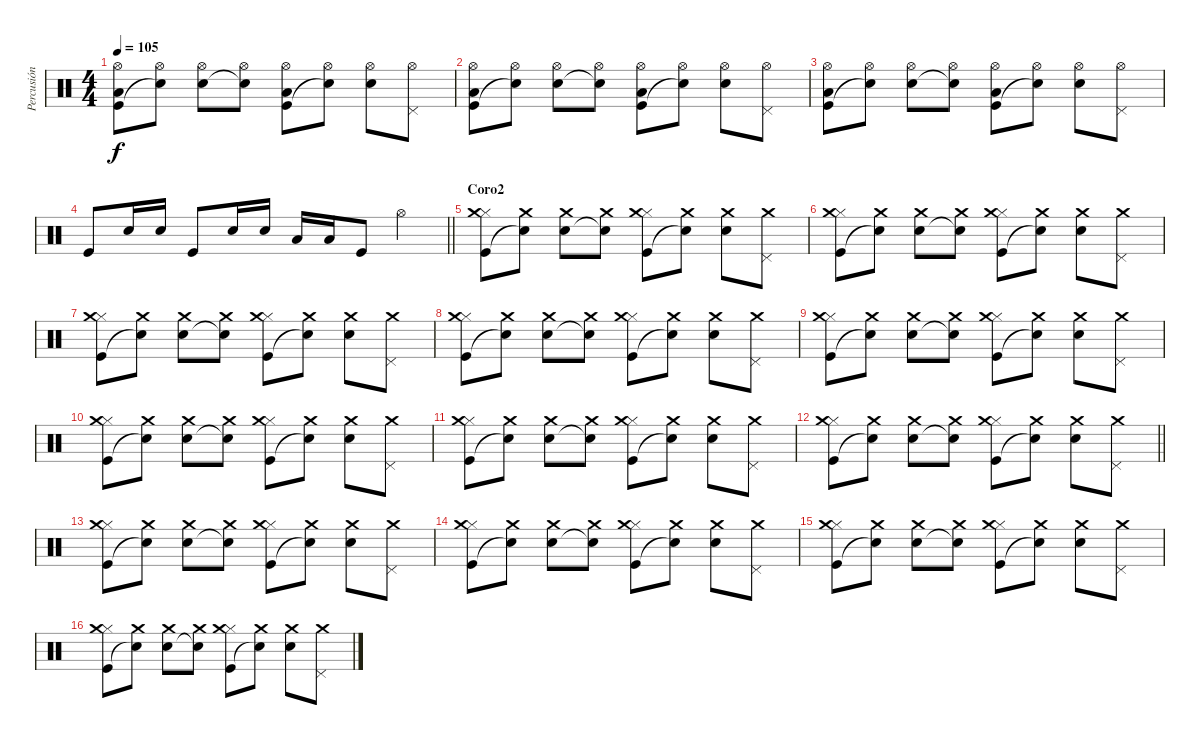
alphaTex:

\track ("Percusión" "Percusión") {instrument percussion}
\staff {score}
\articulation defaults
\ts (4 4)
\tempo 105
\clef neutral
\ks c
("Kick (hit)" "Low Floor Tom (hit)" "Hi-Hat (open)").8{dy f} ("Snare (hit)"{t} "Hi-Hat (open)").8 ("Snare (hit) 2" "Hi-Hat (open)").8 ("Snare (hit)"{t} "Hi-Hat (open)").8 ("Kick (hit)" "Low Floor Tom (hit)" "Hi-Hat (open)").8 ("Snare (hit)"{t} "Hi-Hat (open)").8 ("Electric Snare (hit)" "Hi-Hat (open)").8 ("Pedal Hi-Hat (hit)" "Hi-Hat (open)").8 |
("Kick (hit)" "Low Floor Tom (hit)" "Hi-Hat (open)").8 ("Snare (hit)"{t} "Hi-Hat (open)").8 ("Snare (hit) 2" "Hi-Hat (open)").8 ("Snare (hit)"{t} "Hi-Hat (open)").8 ("Kick (hit)" "Low Floor Tom (hit)" "Hi-Hat (open)").8 ("Snare (hit)"{t} "Hi-Hat (open)").8 ("Electric Snare (hit)" "Hi-Hat (open)").8 ("Pedal Hi-Hat (hit)" "Hi-Hat (open)").8 |
("Kick (hit)" "Low Floor Tom (hit)" "Hi-Hat (open)").8 ("Snare (hit)"{t} "Hi-Hat (open)").8 ("Snare (hit) 2" "Hi-Hat (open)").8 ("Snare (hit)"{t} "Hi-Hat (open)").8 ("Kick (hit)" "Low Floor Tom (hit)" "Hi-Hat (open)").8 ("Snare (hit)"{t} "Hi-Hat (open)").8 ("Electric Snare (hit)" "Hi-Hat (open)").8 ("Pedal Hi-Hat (hit)" "Hi-Hat (open)").8 |
\barLineRight lightlight "Kick (hit)".8 "Electric Snare (hit)".16 "Electric Snare (hit)".16 "Kick (hit)".8 "Electric Snare (hit)".16 "Electric Snare (hit)".16 "Low Tom (hit)".16 "Low Floor Tom (hit)".16 "Kick (hit)".8 "Hi-Hat (open)".4
|
\section ("" "Coro2")
("Kick (hit)" "Hi-Hat (closed)" "Crash medium (hit)").8 ("Snare (hit)"{t} "Crash medium (hit)").8 ("Electric Snare (hit)" "Crash medium (hit)").8 ("Snare (hit)"{t} "Crash medium (hit)").8 ("Kick (hit)" "Hi-Hat (closed)" "Crash medium (hit)").8 ("Snare (hit)"{t} "Crash medium (hit)").8 ("Electric Snare (hit)" "Crash medium (hit)").8 ("Pedal Hi-Hat (hit)" "Crash medium (hit)").8 |
("Kick (hit)" "Hi-Hat (closed)" "Crash medium (hit)").8 ("Snare (hit)"{t} "Crash medium (hit)").8 ("Electric Snare (hit)" "Crash medium (hit)").8 ("Snare (hit)"{t} "Crash medium (hit)").8 ("Kick (hit)" "Hi-Hat (closed)" "Crash medium (hit)").8 ("Snare (hit)"{t} "Crash medium (hit)").8 ("Electric Snare (hit)" "Crash medium (hit)").8 ("Pedal Hi-Hat (hit)" "Crash medium (hit)").8 |
("Kick (hit)" "Hi-Hat (closed)" "Crash medium (hit)").8 ("Snare (hit)"{t} "Crash medium (hit)").8 ("Electric Snare (hit)" "Crash medium (hit)").8 ("Snare (hit)"{t} "Crash medium (hit)").8 ("Kick (hit)" "Hi-Hat (closed)" "Crash medium (hit)").8 ("Snare (hit)"{t} "Crash medium (hit)").8 ("Electric Snare (hit)" "Crash medium (hit)").8 ("Pedal Hi-Hat (hit)" "Crash medium (hit)").8 |
("Kick (hit)" "Hi-Hat (closed)" "Crash medium (hit)").8 ("Snare (hit)"{t} "Crash medium (hit)").8 ("Electric Snare (hit)" "Crash medium (hit)").8 ("Snare (hit)"{t} "Crash medium (hit)").8 ("Kick (hit)" "Hi-Hat (closed)" "Crash medium (hit)").8 ("Snare (hit)"{t} "Crash medium (hit)").8 ("Electric Snare (hit)" "Crash medium (hit)").8 ("Pedal Hi-Hat (hit)" "Crash medium (hit)").8 |
("Kick (hit)" "Hi-Hat (closed)" "Crash medium (hit)").8 ("Snare (hit)"{t} "Crash medium (hit)").8 ("Electric Snare (hit)" "Crash medium (hit)").8 ("Snare (hit)"{t} "Crash medium (hit)").8 ("Kick (hit)" "Hi-Hat (closed)" "Crash medium (hit)").8 ("Snare (hit)"{t} "Crash medium (hit)").8 ("Electric Snare (hit)" "Crash medium (hit)").8 ("Pedal Hi-Hat (hit)" "Crash medium (hit)").8 |
("Kick (hit)" "Hi-Hat (closed)" "Crash medium (hit)").8 ("Snare (hit)"{t} "Crash medium (hit)").8 ("Electric Snare (hit)" "Crash medium (hit)").8 ("Snare (hit)"{t} "Crash medium (hit)").8 ("Kick (hit)" "Hi-Hat (closed)" "Crash medium (hit)").8 ("Snare (hit)"{t} "Crash medium (hit)").8 ("Electric Snare (hit)" "Crash medium (hit)").8 ("Pedal Hi-Hat (hit)" "Crash medium (hit)").8 |
("Kick (hit)" "Hi-Hat (closed)" "Crash medium (hit)").8 ("Snare (hit)"{t} "Crash medium (hit)").8 ("Electric Snare (hit)" "Crash medium (hit)").8 ("Snare (hit)"{t} "Crash medium (hit)").8 ("Kick (hit)" "Hi-Hat (closed)" "Crash medium (hit)").8 ("Snare (hit)"{t} "Crash medium (hit)").8 ("Electric Snare (hit)" "Crash medium (hit)").8 ("Pedal Hi-Hat (hit)" "Crash medium (hit)").8 |
\barLineRight lightlight
("Kick (hit)" "Hi-Hat (closed)" "Crash medium (hit)").8 ("Snare (hit)"{t} "Crash medium (hit)").8 ("Electric Snare (hit)" "Crash medium (hit)").8 ("Snare (hit)"{t} "Crash medium (hit)").8 ("Kick (hit)" "Hi-Hat (closed)" "Crash medium (hit)").8 ("Snare (hit)"{t} "Crash medium (hit)").8 ("Electric Snare (hit)" "Crash medium (hit)").8 ("Pedal Hi-Hat (hit)" "Crash medium (hit)").8 |
("Kick (hit)" "Hi-Hat (closed)" "Crash medium (hit)").8 ("Snare (hit)"{t} "Crash medium (hit)").8 ("Electric Snare (hit)" "Crash medium (hit)").8 ("Snare (hit)"{t} "Crash medium (hit)").8 ("Kick (hit)" "Hi-Hat (closed)" "Crash medium (hit)").8 ("Snare (hit)"{t} "Crash medium (hit)").8 ("Electric Snare (hit)" "Crash medium (hit)").8 ("Pedal Hi-Hat (hit)" "Crash medium (hit)").8 |
("Kick (hit)" "Hi-Hat (closed)" "Crash medium (hit)").8 ("Snare (hit)"{t} "Crash medium (hit)").8 ("Electric Snare (hit)" "Crash medium (hit)").8 ("Snare (hit)"{t} "Crash medium (hit)").8 ("Kick (hit)" "Hi-Hat (closed)" "Crash medium (hit)").8 ("Snare (hit)"{t} "Crash medium (hit)").8 ("Electric Snare (hit)" "Crash medium (hit)").8 ("Pedal Hi-Hat (hit)" "Crash medium (hit)").8 |
("Kick (hit)" "Hi-Hat (closed)" "Crash medium (hit)").8 ("Snare (hit)"{t} "Crash medium (hit)").8 ("Electric Snare (hit)" "Crash medium (hit)").8 ("Snare (hit)"{t} "Crash medium (hit)").8 ("Kick (hit)" "Hi-Hat (closed)" "Crash medium (hit)").8 ("Snare (hit)"{t} "Crash medium (hit)").8 ("Electric Snare (hit)" "Crash medium (hit)").8 ("Pedal Hi-Hat (hit)" "Crash medium (hit)").8 |
("Kick (hit)" "Hi-Hat (closed)" "Crash medium (hit)").8 ("Snare (hit)"{t} "Crash medium (hit)").8 ("Electric Snare (hit)" "Crash medium (hit)").8 ("Snare (hit)"{t} "Crash medium (hit)").8 ("Kick (hit)" "Hi-Hat (closed)" "Crash medium (hit)").8 ("Snare (hit)"{t} "Crash medium (hit)").8 ("Electric Snare (hit)" "Crash medium (hit)").8 ("Pedal Hi-Hat (hit)" "Crash medium (hit)").8
